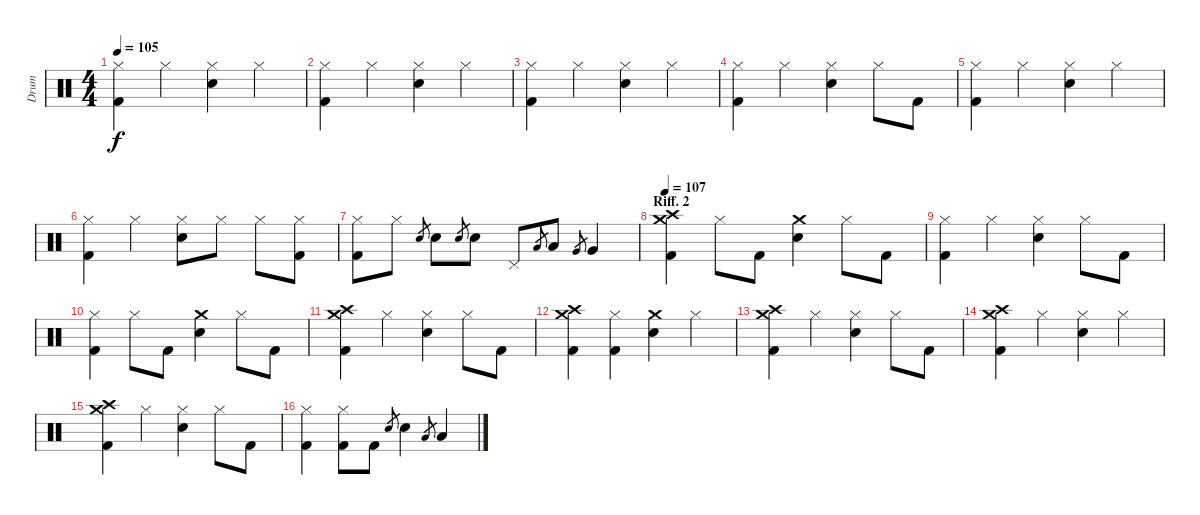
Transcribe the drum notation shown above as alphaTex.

\track ("Drum" "Drum") {instrument percussion}
\staff {score}
\articulation defaults
\ts (4 4)
\tempo 105
\clef neutral
\ks c
("Hi-Hat (closed)" "Kick (hit) 2").4{dy f} "Hi-Hat (closed)".4 ("Hi-Hat (closed)" "Snare (hit) 2").4 "Hi-Hat (closed)".4 |
("Hi-Hat (closed)" "Kick (hit) 2").4 "Hi-Hat (closed)".4 ("Hi-Hat (closed)" "Snare (hit) 2").4 "Hi-Hat (closed)".4 |
("Hi-Hat (closed)" "Kick (hit) 2").4 "Hi-Hat (closed)".4 ("Hi-Hat (closed)" "Snare (hit) 2").4 "Hi-Hat (closed)".4 |
("Hi-Hat (closed)" "Kick (hit) 2").4 "Hi-Hat (closed)".4 ("Hi-Hat (closed)" "Snare (hit) 2").4 "Hi-Hat (closed)".8 "Kick (hit) 2".8 |
("Hi-Hat (closed)" "Kick (hit) 2").4 "Hi-Hat (closed)".4 ("Hi-Hat (closed)" "Snare (hit) 2").4 "Hi-Hat (closed)".4 |
("Hi-Hat (closed)" "Kick (hit) 2").4 "Hi-Hat (closed)".4 ("Hi-Hat (closed)" "Snare (hit) 2").8 "Hi-Hat (closed)".8 "Hi-Hat (closed)".8 ("Hi-Hat (closed)" "Kick (hit) 2").8 |
("Hi-Hat (closed)" "Kick (hit) 2").8 "Hi-Hat (closed)".8 "Snare (hit) 2".8{gr} "Snare (hit) 2".8 "Snare (hit) 2".8{gr} "Snare (hit) 2".8 "Pedal Hi-Hat (hit)".8 "Low Tom (hit)".8{gr} "Low Tom (hit)".8 "Very Low Tom (hit)".8{gr} "Very Low Tom (hit)".4 |
\section ("" "Riff. 2")
\tempo 107
("Kick (hit) 2" "Crash high (hit)" "Crash medium (hit)").4 "Hi-Hat (closed)".8 "Kick (hit) 2".8 ("Snare (hit) 2" "Crash medium (hit)").4 "Hi-Hat (closed)".8 "Kick (hit) 2".8 |
("Hi-Hat (closed)" "Kick (hit) 2").4 "Hi-Hat (closed)".4 ("Hi-Hat (closed)" "Snare (hit) 2").4 "Hi-Hat (closed)".8 "Kick (hit) 2".8 |
("Hi-Hat (closed)" "Kick (hit) 2").4 "Hi-Hat (closed)".8 "Kick (hit) 2".8 ("Snare (hit) 2" "Crash medium (hit)").4 "Hi-Hat (closed)".8 "Kick (hit) 2".8 |
("Kick (hit) 2" "Crash high (hit)" "Crash medium (hit)").4 "Hi-Hat (closed)".4 ("Hi-Hat (closed)" "Snare (hit) 2").4 "Hi-Hat (closed)".8 "Kick (hit) 2".8 |
("Kick (hit) 2" "Crash high (hit)" "Crash medium (hit)").4 ("Hi-Hat (closed)" "Kick (hit) 2").4 ("Snare (hit) 2" "Crash medium (hit)").4 "Hi-Hat (closed)".4 |
("Kick (hit) 2" "Crash high (hit)" "Crash medium (hit)").4 "Hi-Hat (closed)".4 ("Hi-Hat (closed)" "Snare (hit) 2").4 "Hi-Hat (closed)".8 "Kick (hit) 2".8 |
("Kick (hit) 2" "Crash high (hit)" "Crash medium (hit)").4 "Hi-Hat (closed)".4 ("Hi-Hat (closed)" "Snare (hit) 2").4 "Hi-Hat (closed)".4 |
("Kick (hit) 2" "Crash high (hit)" "Crash medium (hit)").4 "Hi-Hat (closed)".4 ("Hi-Hat (closed)" "Snare (hit) 2").4 "Hi-Hat (closed)".8 "Kick (hit) 2".8 |
("Hi-Hat (closed)" "Kick (hit) 2").4 ("Hi-Hat (closed)" "Kick (hit) 2").8 "Kick (hit) 2".8 "Snare (hit) 2".8{gr} "Snare (hit) 2".4 "Low Tom (hit)".8{gr} "Low Tom (hit)".4
